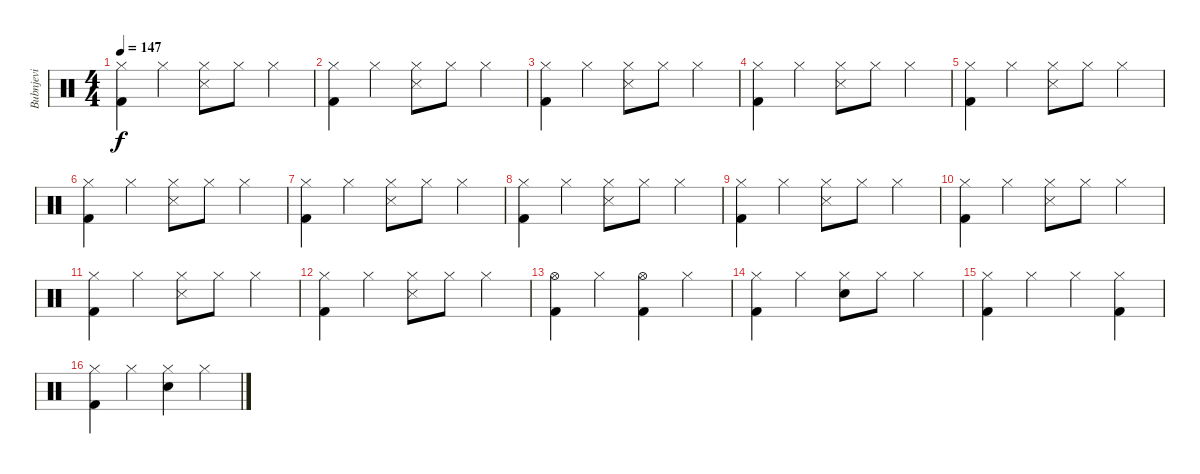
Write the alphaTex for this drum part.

\track ("Bubnjevi" "Bubnjevi") {instrument percussion}
\staff {score}
\articulation defaults
\ts (4 4)
\tempo 147
\clef neutral
\ks c
("Hi-Hat (closed)" "Kick (hit) 2").4{dy f} "Hi-Hat (closed)".4 ("Hi-Hat (closed)" "Snare (side stick) 3").8 "Hi-Hat (closed)".8 "Hi-Hat (closed)".4 |
("Hi-Hat (closed)" "Kick (hit) 2").4 "Hi-Hat (closed)".4 ("Hi-Hat (closed)" "Snare (side stick) 3").8 "Hi-Hat (closed)".8 "Hi-Hat (closed)".4 |
("Hi-Hat (closed)" "Kick (hit) 2").4 "Hi-Hat (closed)".4 ("Hi-Hat (closed)" "Snare (side stick) 3").8 "Hi-Hat (closed)".8 "Hi-Hat (closed)".4 |
("Hi-Hat (closed)" "Kick (hit) 2").4 "Hi-Hat (closed)".4 ("Hi-Hat (closed)" "Snare (side stick) 3").8 "Hi-Hat (closed)".8 "Hi-Hat (closed)".4 |
("Hi-Hat (closed)" "Kick (hit) 2").4 "Hi-Hat (closed)".4 ("Hi-Hat (closed)" "Snare (side stick) 3").8 "Hi-Hat (closed)".8 "Hi-Hat (closed)".4 |
("Hi-Hat (closed)" "Kick (hit) 2").4 "Hi-Hat (closed)".4 ("Hi-Hat (closed)" "Snare (side stick) 3").8 "Hi-Hat (closed)".8 "Hi-Hat (closed)".4 |
("Hi-Hat (closed)" "Kick (hit) 2").4 "Hi-Hat (closed)".4 ("Hi-Hat (closed)" "Snare (side stick) 3").8 "Hi-Hat (closed)".8 "Hi-Hat (closed)".4 |
("Hi-Hat (closed)" "Kick (hit) 2").4 "Hi-Hat (closed)".4 ("Hi-Hat (closed)" "Snare (side stick) 3").8 "Hi-Hat (closed)".8 "Hi-Hat (closed)".4 |
("Hi-Hat (closed)" "Kick (hit) 2").4 "Hi-Hat (closed)".4 ("Hi-Hat (closed)" "Snare (side stick) 3").8 "Hi-Hat (closed)".8 "Hi-Hat (closed)".4 |
("Hi-Hat (closed)" "Kick (hit) 2").4 "Hi-Hat (closed)".4 ("Hi-Hat (closed)" "Snare (side stick) 3").8 "Hi-Hat (closed)".8 "Hi-Hat (closed)".4 |
("Hi-Hat (closed)" "Kick (hit) 2").4 "Hi-Hat (closed)".4 ("Hi-Hat (closed)" "Snare (side stick) 3").8 "Hi-Hat (closed)".8 "Hi-Hat (closed)".4 |
("Hi-Hat (closed)" "Kick (hit) 2").4 "Hi-Hat (closed)".4 ("Hi-Hat (closed)" "Snare (side stick) 3").8 "Hi-Hat (closed)".8 "Hi-Hat (closed)".4 |
("Hi-Hat (open)" "Kick (hit) 2").4 "Hi-Hat (closed)".4 ("Hi-Hat (open)" "Kick (hit) 2").4 "Hi-Hat (closed)".4 |
("Hi-Hat (closed)" "Kick (hit) 2").4 "Hi-Hat (closed)".4 ("Hi-Hat (closed)" "Electric Snare (hit)").8 "Hi-Hat (closed)".8 "Hi-Hat (closed)".4 |
("Hi-Hat (closed)" "Kick (hit) 2").4 "Hi-Hat (closed)".4 "Hi-Hat (closed)".4 ("Hi-Hat (closed)" "Kick (hit) 2").4 |
("Hi-Hat (closed)" "Kick (hit) 2").4 "Hi-Hat (closed)".4 ("Hi-Hat (closed)" "Electric Snare (hit)").4 "Hi-Hat (closed)".4
